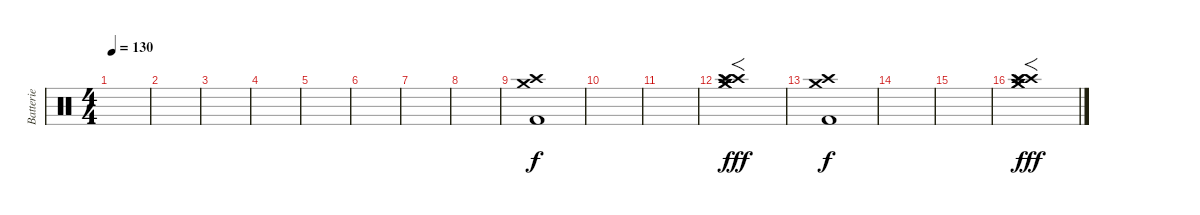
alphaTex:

\track ("Batterie" "Batterie") {instrument percussion}
\staff {score}
\articulation defaults
\ts (4 4)
\tempo 130
\clef neutral
\ks c
|
|
|
|
|
|
|
|
("Crash high (hit)" "Crash medium (hit)" "Kick (hit) 2").1 |
|
|
("Crash high (hit)" "Crash medium (hit)" "Splash (hit)" "Crash high (hit)" "Crash medium (hit)" "Splash (hit)").1{f dy fff} |
("Crash high (hit)" "Crash medium (hit)" "Kick (hit) 2").1{dy f} |
|
|
("Crash high (hit)" "Crash medium (hit)" "Splash (hit)" "Crash high (hit)" "Crash medium (hit)" "Splash (hit)").1{f dy fff}
